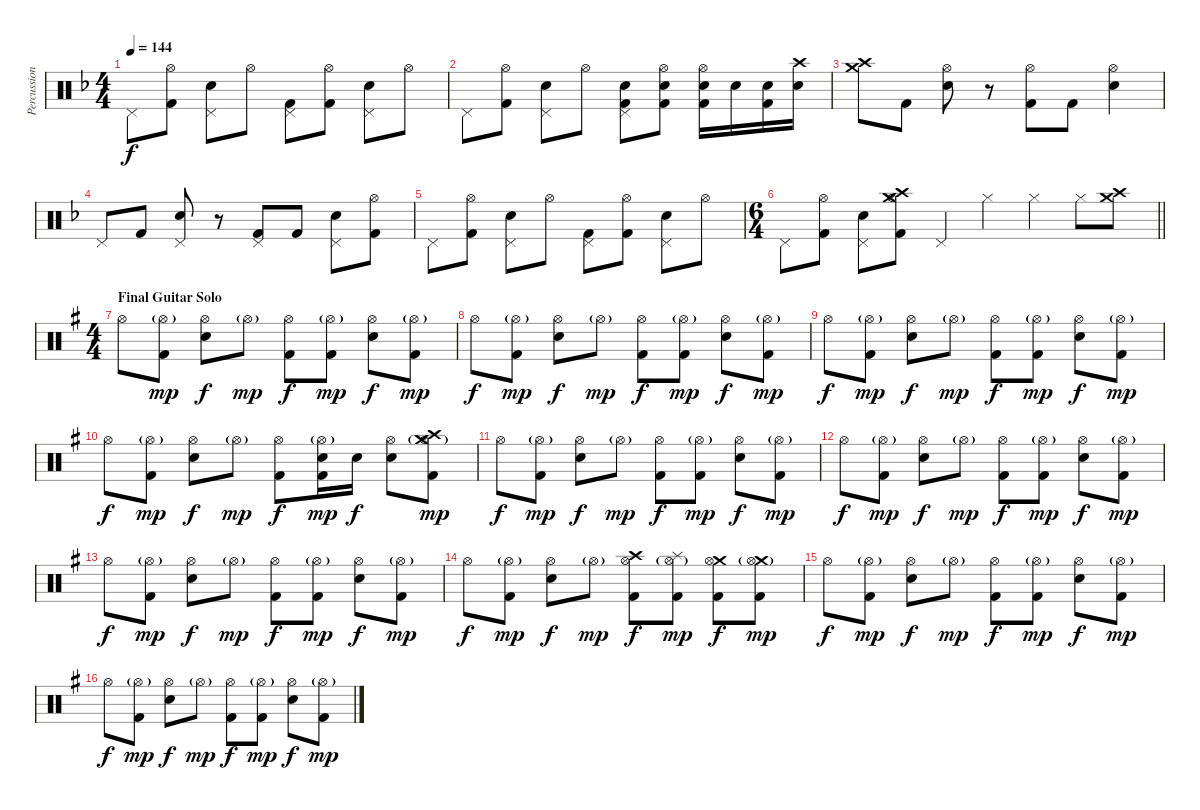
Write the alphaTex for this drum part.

\track ("Percussion" "Percussion") {instrument percussion}
\staff {score}
\articulation defaults
\ts (4 4)
\tempo 144
\clef neutral
\ks f "Pedal Hi-Hat (hit)".8{dy f}
("Hi-Hat (open)" "Kick (hit) 2").8 ("Electric Snare (hit)" "Pedal Hi-Hat (hit)").8 "Hi-Hat (open)".8 ("Pedal Hi-Hat (hit)" "Kick (hit) 2").8 ("Hi-Hat (open)" "Kick (hit) 2").8 ("Electric Snare (hit)" "Pedal Hi-Hat (hit)").8 "Hi-Hat (open)".8 |
"Pedal Hi-Hat (hit)".8 ("Hi-Hat (open)" "Kick (hit) 2").8 ("Electric Snare (hit)" "Pedal Hi-Hat (hit)").8 "Hi-Hat (open)".8 ("Pedal Hi-Hat (hit)" "Electric Snare (hit)" "Kick (hit) 2").8 ("Hi-Hat (open)" "Electric Snare (hit)" "Kick (hit) 2").8 ("Hi-Hat (open)" "Electric Snare (hit)" "Kick (hit) 2").16 "Electric Snare (hit)".16 ("Electric Snare (hit)" "Kick (hit) 2").16 ("Crash high (hit)" "Electric Snare (hit)").16 |
("Crash high (hit)" "Crash medium (hit)").8 "Kick (hit) 2".8 ("Electric Snare (hit)" "Hi-Hat (open)").8 r.8 ("Hi-Hat (open)" "Kick (hit) 2").8 "Kick (hit) 2".8 ("Electric Snare (hit)" "Hi-Hat (open)").4 |
"Pedal Hi-Hat (hit)".8 "Kick (hit) 2".8 ("Electric Snare (hit)" "Pedal Hi-Hat (hit)").8 r.8 ("Pedal Hi-Hat (hit)" "Kick (hit) 2").8 "Kick (hit) 2".8 ("Electric Snare (hit)" "Pedal Hi-Hat (hit)").8 ("Hi-Hat (open)" "Kick (hit) 2").8 |
"Pedal Hi-Hat (hit)".8 ("Hi-Hat (open)" "Kick (hit) 2").8 ("Electric Snare (hit)" "Pedal Hi-Hat (hit)").8 "Hi-Hat (open)".8 ("Pedal Hi-Hat (hit)" "Kick (hit) 2").8 ("Hi-Hat (open)" "Kick (hit) 2").8 ("Electric Snare (hit)" "Pedal Hi-Hat (hit)").8 "Hi-Hat (open)".8 |
\ts (6 4)
\barLineRight lightlight "Pedal Hi-Hat (hit)".8
("Hi-Hat (open)" "Kick (hit) 2").8 ("Electric Snare (hit)" "Pedal Hi-Hat (hit)").8 ("Crash high (hit)" "Crash medium (hit)" "Hi-Hat (open)" "Kick (hit) 2").8 "Pedal Hi-Hat (hit)".4 "Hi-Hat (closed)".4 "Hi-Hat (closed)".4 "Hi-Hat (closed)".8 ("Crash medium (hit)" "Crash high (hit)").8 |
\ts (4 4)
\section ("" "Final Guitar Solo")
\ks g "Hi-Hat (open)".8
("Hi-Hat (open)"{g} "Kick (hit) 2").8{dy mp} ("Hi-Hat (open)" "Electric Snare (hit)").8{dy f} "Hi-Hat (open)"{g}.8{dy mp} ("Hi-Hat (open)" "Kick (hit) 2").8{dy f} ("Hi-Hat (open)"{g} "Kick (hit) 2").8{dy mp} ("Hi-Hat (open)" "Electric Snare (hit)").8{dy f} ("Hi-Hat (open)"{g} "Kick (hit) 2").8{dy mp} |
"Hi-Hat (open)".8{dy f} ("Hi-Hat (open)"{g} "Kick (hit) 2").8{dy mp} ("Hi-Hat (open)" "Electric Snare (hit)").8{dy f} "Hi-Hat (open)"{g}.8{dy mp} ("Hi-Hat (open)" "Kick (hit) 2").8{dy f} ("Hi-Hat (open)"{g} "Kick (hit) 2").8{dy mp} ("Hi-Hat (open)" "Electric Snare (hit)").8{dy f} ("Hi-Hat (open)"{g} "Kick (hit) 2").8{dy mp} |
"Hi-Hat (open)".8{dy f} ("Hi-Hat (open)"{g} "Kick (hit) 2").8{dy mp} ("Hi-Hat (open)" "Electric Snare (hit)").8{dy f} "Hi-Hat (open)"{g}.8{dy mp} ("Hi-Hat (open)" "Kick (hit) 2").8{dy f} ("Hi-Hat (open)"{g} "Kick (hit) 2").8{dy mp} ("Hi-Hat (open)" "Electric Snare (hit)").8{dy f} ("Hi-Hat (open)"{g} "Kick (hit) 2").8{dy mp} |
"Hi-Hat (open)".8{dy f} ("Hi-Hat (open)"{g} "Kick (hit) 2").8{dy mp} ("Hi-Hat (open)" "Electric Snare (hit)").8{dy f} "Hi-Hat (open)"{g}.8{dy mp} ("Hi-Hat (open)" "Kick (hit) 2").8{dy f} ("Hi-Hat (open)"{g} "Electric Snare (hit)" "Kick (hit) 2").16{dy mp} "Electric Snare (hit)".16{dy f} ("Hi-Hat (open)" "Electric Snare (hit)").8 ("Crash high (hit)" "Crash medium (hit)" "Hi-Hat (open)"{g} "Kick (hit) 2").8{dy mp} |
"Hi-Hat (open)".8{dy f} ("Hi-Hat (open)"{g} "Kick (hit) 2").8{dy mp} ("Hi-Hat (open)" "Electric Snare (hit)").8{dy f} "Hi-Hat (open)"{g}.8{dy mp} ("Hi-Hat (open)" "Kick (hit) 2").8{dy f} ("Hi-Hat (open)"{g} "Kick (hit) 2").8{dy mp} ("Hi-Hat (open)" "Electric Snare (hit)").8{dy f} ("Hi-Hat (open)"{g} "Kick (hit) 2").8{dy mp} |
"Hi-Hat (open)".8{dy f} ("Hi-Hat (open)"{g} "Kick (hit) 2").8{dy mp} ("Hi-Hat (open)" "Electric Snare (hit)").8{dy f} "Hi-Hat (open)"{g}.8{dy mp} ("Hi-Hat (open)" "Kick (hit) 2").8{dy f} ("Hi-Hat (open)"{g} "Kick (hit) 2").8{dy mp} ("Hi-Hat (open)" "Electric Snare (hit)").8{dy f} ("Hi-Hat (open)"{g} "Kick (hit) 2").8{dy mp} |
"Hi-Hat (open)".8{dy f} ("Hi-Hat (open)"{g} "Kick (hit) 2").8{dy mp} ("Hi-Hat (open)" "Electric Snare (hit)").8{dy f} "Hi-Hat (open)"{g}.8{dy mp} ("Hi-Hat (open)" "Kick (hit) 2").8{dy f} ("Hi-Hat (open)"{g} "Kick (hit) 2").8{dy mp} ("Hi-Hat (open)" "Electric Snare (hit)").8{dy f} ("Hi-Hat (open)"{g} "Kick (hit) 2").8{dy mp} |
"Hi-Hat (open)".8{dy f} ("Hi-Hat (open)"{g} "Kick (hit) 2").8{dy mp} ("Hi-Hat (open)" "Electric Snare (hit)").8{dy f} "Hi-Hat (open)"{g}.8{dy mp} ("Crash high (hit)" "Hi-Hat (open)" "Kick (hit) 2").8{dy f} ("Splash (hit)" "Hi-Hat (open)"{g} "Kick (hit) 2").8{dy mp} ("Crash medium (hit)" "Hi-Hat (open)" "Kick (hit) 2").8{dy f} ("Crash medium (hit)" "Hi-Hat (open)"{g} "Kick (hit) 2").8{dy mp} |
"Hi-Hat (open)".8{dy f} ("Hi-Hat (open)"{g} "Kick (hit) 2").8{dy mp} ("Hi-Hat (open)" "Electric Snare (hit)").8{dy f} "Hi-Hat (open)"{g}.8{dy mp} ("Hi-Hat (open)" "Kick (hit) 2").8{dy f} ("Hi-Hat (open)"{g} "Kick (hit) 2").8{dy mp} ("Hi-Hat (open)" "Electric Snare (hit)").8{dy f} ("Hi-Hat (open)"{g} "Kick (hit) 2").8{dy mp} |
"Hi-Hat (open)".8{dy f} ("Hi-Hat (open)"{g} "Kick (hit) 2").8{dy mp} ("Hi-Hat (open)" "Electric Snare (hit)").8{dy f} "Hi-Hat (open)"{g}.8{dy mp} ("Hi-Hat (open)" "Kick (hit) 2").8{dy f} ("Hi-Hat (open)"{g} "Kick (hit) 2").8{dy mp} ("Hi-Hat (open)" "Electric Snare (hit)").8{dy f} ("Hi-Hat (open)"{g} "Kick (hit) 2").8{dy mp}
